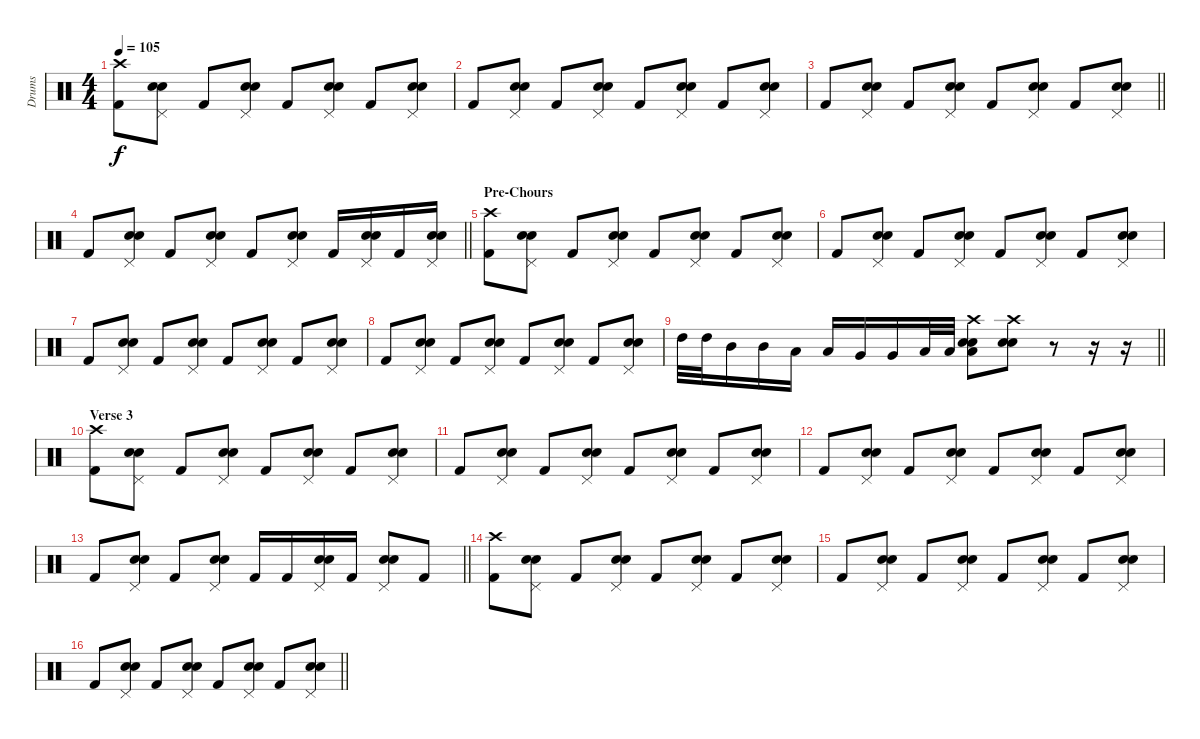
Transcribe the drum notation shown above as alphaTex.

\track ("Drums" "Drums") {instrument percussion}
\staff {score}
\articulation defaults
\ts (4 4)
\tempo 105
\clef neutral
\ks c
("Crash high (hit)" "Kick (hit) 2").8{dy f} ("Pedal Hi-Hat (hit)" "Electric Snare (hit)" "Hand Clap (hit)").8 "Kick (hit) 2".8 ("Pedal Hi-Hat (hit)" "Electric Snare (hit)" "Hand Clap (hit)").8 "Kick (hit) 2".8 ("Pedal Hi-Hat (hit)" "Electric Snare (hit)" "Hand Clap (hit)").8 "Kick (hit) 2".8 ("Pedal Hi-Hat (hit)" "Electric Snare (hit)" "Hand Clap (hit)").8 |
"Kick (hit) 2".8 ("Pedal Hi-Hat (hit)" "Electric Snare (hit)" "Hand Clap (hit)").8 "Kick (hit) 2".8 ("Pedal Hi-Hat (hit)" "Electric Snare (hit)" "Hand Clap (hit)").8 "Kick (hit) 2".8 ("Pedal Hi-Hat (hit)" "Electric Snare (hit)" "Hand Clap (hit)").8 "Kick (hit) 2".8 ("Pedal Hi-Hat (hit)" "Electric Snare (hit)" "Hand Clap (hit)").8 |
\barLineRight lightlight "Kick (hit) 2".8
("Pedal Hi-Hat (hit)" "Electric Snare (hit)" "Hand Clap (hit)").8 "Kick (hit) 2".8 ("Pedal Hi-Hat (hit)" "Electric Snare (hit)" "Hand Clap (hit)").8 "Kick (hit) 2".8 ("Pedal Hi-Hat (hit)" "Electric Snare (hit)" "Hand Clap (hit)").8 "Kick (hit) 2".8 ("Pedal Hi-Hat (hit)" "Electric Snare (hit)" "Hand Clap (hit)").8 |
\barLineRight lightlight "Kick (hit) 2".8
("Pedal Hi-Hat (hit)" "Electric Snare (hit)" "Hand Clap (hit)").8 "Kick (hit) 2".8 ("Pedal Hi-Hat (hit)" "Electric Snare (hit)" "Hand Clap (hit)").8 "Kick (hit) 2".8 ("Pedal Hi-Hat (hit)" "Electric Snare (hit)" "Hand Clap (hit)").8 "Kick (hit) 2".16 ("Pedal Hi-Hat (hit)" "Electric Snare (hit)" "Hand Clap (hit)").16 "Kick (hit) 2".16 ("Pedal Hi-Hat (hit)" "Electric Snare (hit)" "Hand Clap (hit)").16 |
\section ("" "Pre-Chours")
("Crash high (hit)" "Kick (hit) 2").8 ("Pedal Hi-Hat (hit)" "Electric Snare (hit)" "Hand Clap (hit)").8 "Kick (hit) 2".8 ("Pedal Hi-Hat (hit)" "Electric Snare (hit)" "Hand Clap (hit)").8 "Kick (hit) 2".8 ("Pedal Hi-Hat (hit)" "Electric Snare (hit)" "Hand Clap (hit)").8 "Kick (hit) 2".8 ("Pedal Hi-Hat (hit)" "Electric Snare (hit)" "Hand Clap (hit)").8 |
"Kick (hit) 2".8 ("Pedal Hi-Hat (hit)" "Electric Snare (hit)" "Hand Clap (hit)").8 "Kick (hit) 2".8 ("Pedal Hi-Hat (hit)" "Electric Snare (hit)" "Hand Clap (hit)").8 "Kick (hit) 2".8 ("Pedal Hi-Hat (hit)" "Electric Snare (hit)" "Hand Clap (hit)").8 "Kick (hit) 2".8 ("Pedal Hi-Hat (hit)" "Electric Snare (hit)" "Hand Clap (hit)").8 |
"Kick (hit) 2".8 ("Pedal Hi-Hat (hit)" "Electric Snare (hit)" "Hand Clap (hit)").8 "Kick (hit) 2".8 ("Pedal Hi-Hat (hit)" "Electric Snare (hit)" "Hand Clap (hit)").8 "Kick (hit) 2".8 ("Pedal Hi-Hat (hit)" "Electric Snare (hit)" "Hand Clap (hit)").8 "Kick (hit) 2".8 ("Pedal Hi-Hat (hit)" "Electric Snare (hit)" "Hand Clap (hit)").8 |
"Kick (hit) 2".8 ("Pedal Hi-Hat (hit)" "Electric Snare (hit)" "Hand Clap (hit)").8 "Kick (hit) 2".8 ("Pedal Hi-Hat (hit)" "Electric Snare (hit)" "Hand Clap (hit)").8 "Kick (hit) 2".8 ("Pedal Hi-Hat (hit)" "Electric Snare (hit)" "Hand Clap (hit)").8 "Kick (hit) 2".8 ("Pedal Hi-Hat (hit)" "Electric Snare (hit)" "Hand Clap (hit)").8 |
\barLineRight lightlight "High Tom (hit)".32 "High Tom (hit)".32 "Mid Tom (hit)".16 "Mid Tom (hit)".16 "Low Tom (hit)".16 "Low Tom (hit)".16 "Very Low Tom (hit)".16 "Very Low Tom (hit)".16 "Low Floor Tom (hit)".32 "Low Floor Tom (hit)".32
("Crash high (hit)" "Electric Snare (hit)" "Hand Clap (hit)" "Low Floor Tom (hit)").8 ("Crash high (hit)" "Electric Snare (hit)" "Hand Clap (hit)").8 r.8 r.16 r.16 |
\section ("" "Verse 3")
("Crash high (hit)" "Kick (hit) 2").8 ("Pedal Hi-Hat (hit)" "Electric Snare (hit)" "Hand Clap (hit)").8 "Kick (hit) 2".8 ("Pedal Hi-Hat (hit)" "Electric Snare (hit)" "Hand Clap (hit)").8 "Kick (hit) 2".8 ("Pedal Hi-Hat (hit)" "Electric Snare (hit)" "Hand Clap (hit)").8 "Kick (hit) 2".8 ("Pedal Hi-Hat (hit)" "Electric Snare (hit)" "Hand Clap (hit)").8 |
"Kick (hit) 2".8 ("Pedal Hi-Hat (hit)" "Electric Snare (hit)" "Hand Clap (hit)").8 "Kick (hit) 2".8 ("Pedal Hi-Hat (hit)" "Electric Snare (hit)" "Hand Clap (hit)").8 "Kick (hit) 2".8 ("Pedal Hi-Hat (hit)" "Electric Snare (hit)" "Hand Clap (hit)").8 "Kick (hit) 2".8 ("Pedal Hi-Hat (hit)" "Electric Snare (hit)" "Hand Clap (hit)").8 |
"Kick (hit) 2".8 ("Pedal Hi-Hat (hit)" "Electric Snare (hit)" "Hand Clap (hit)").8 "Kick (hit) 2".8 ("Pedal Hi-Hat (hit)" "Electric Snare (hit)" "Hand Clap (hit)").8 "Kick (hit) 2".8 ("Pedal Hi-Hat (hit)" "Electric Snare (hit)" "Hand Clap (hit)").8 "Kick (hit) 2".8 ("Pedal Hi-Hat (hit)" "Electric Snare (hit)" "Hand Clap (hit)").8 |
\barLineRight lightlight "Kick (hit) 2".8
("Pedal Hi-Hat (hit)" "Electric Snare (hit)" "Hand Clap (hit)").8 "Kick (hit) 2".8 ("Pedal Hi-Hat (hit)" "Electric Snare (hit)" "Hand Clap (hit)").8 "Kick (hit) 2".16 "Kick (hit) 2".16 ("Pedal Hi-Hat (hit)" "Electric Snare (hit)" "Hand Clap (hit)").16 "Kick (hit) 2".16 ("Pedal Hi-Hat (hit)" "Electric Snare (hit)" "Hand Clap (hit)").8 "Kick (hit) 2".8 |
("Crash high (hit)" "Kick (hit) 2").8 ("Pedal Hi-Hat (hit)" "Electric Snare (hit)" "Hand Clap (hit)").8 "Kick (hit) 2".8 ("Pedal Hi-Hat (hit)" "Electric Snare (hit)" "Hand Clap (hit)").8 "Kick (hit) 2".8 ("Pedal Hi-Hat (hit)" "Electric Snare (hit)" "Hand Clap (hit)").8 "Kick (hit) 2".8 ("Pedal Hi-Hat (hit)" "Electric Snare (hit)" "Hand Clap (hit)").8 |
"Kick (hit) 2".8 ("Pedal Hi-Hat (hit)" "Electric Snare (hit)" "Hand Clap (hit)").8 "Kick (hit) 2".8 ("Pedal Hi-Hat (hit)" "Electric Snare (hit)" "Hand Clap (hit)").8 "Kick (hit) 2".8 ("Pedal Hi-Hat (hit)" "Electric Snare (hit)" "Hand Clap (hit)").8 "Kick (hit) 2".8 ("Pedal Hi-Hat (hit)" "Electric Snare (hit)" "Hand Clap (hit)").8 |
\barLineRight lightlight "Kick (hit) 2".8
("Pedal Hi-Hat (hit)" "Electric Snare (hit)" "Hand Clap (hit)").8 "Kick (hit) 2".8 ("Pedal Hi-Hat (hit)" "Electric Snare (hit)" "Hand Clap (hit)").8 "Kick (hit) 2".8 ("Pedal Hi-Hat (hit)" "Electric Snare (hit)" "Hand Clap (hit)").8 "Kick (hit) 2".8 ("Pedal Hi-Hat (hit)" "Electric Snare (hit)" "Hand Clap (hit)").8
